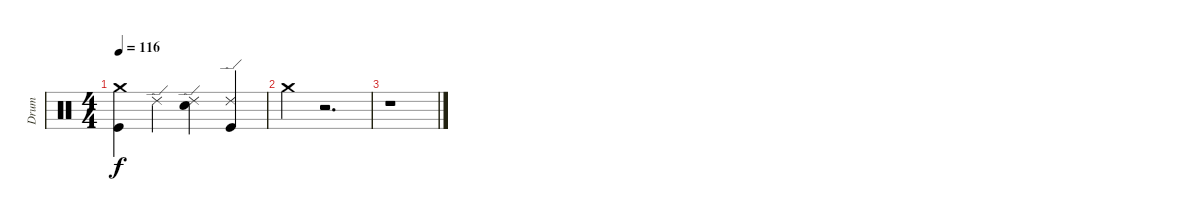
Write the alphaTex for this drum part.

\track ("Drum" "Drum") {instrument percussion}
\staff {score}
\articulation defaults
\ts (4 4)
\tempo 116
\clef neutral
\ks c
("Kick (hit)" "Crash medium (hit)").4{dy f} "Ride (edge) 2".4 ("Electric Snare (hit)" "Ride (edge) 2").4 ("Kick (hit)" "Ride (edge) 2").4 |
"Crash medium (hit)".4 r.2{d} |
r.1
